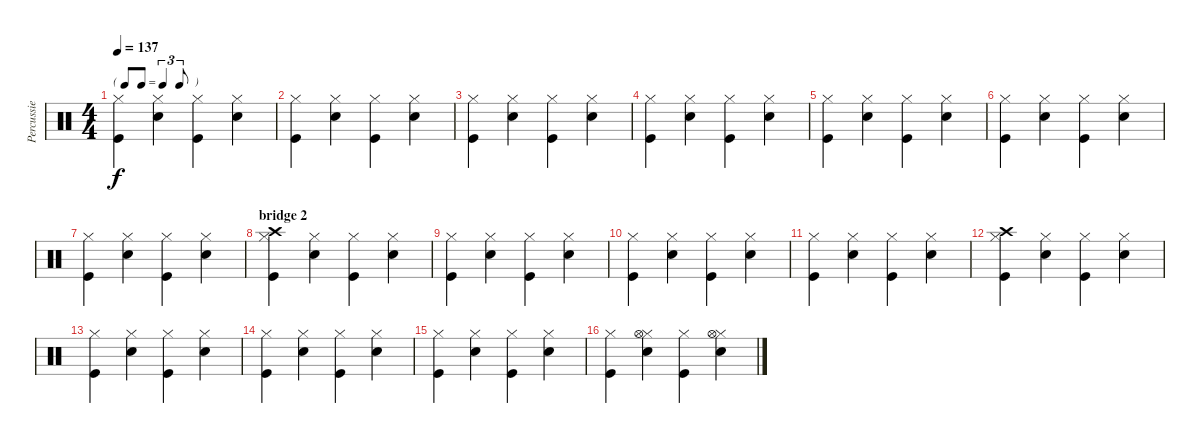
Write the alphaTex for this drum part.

\track ("Percussie" "Percussie") {instrument percussion}
\staff {score}
\articulation defaults
\ts (4 4)
\tf triplet8th
\tempo 137
\clef neutral
\ks c
("Hi-Hat (closed)" "Kick (hit)").4{dy f} ("Hi-Hat (closed)" "Snare (hit) 2").4 ("Hi-Hat (closed)" "Kick (hit)").4 ("Hi-Hat (closed)" "Snare (hit) 2").4 |
("Hi-Hat (closed)" "Kick (hit)").4 ("Hi-Hat (closed)" "Snare (hit) 2").4 ("Hi-Hat (closed)" "Kick (hit)").4 ("Hi-Hat (closed)" "Snare (hit) 2").4 |
("Hi-Hat (closed)" "Kick (hit)").4 ("Hi-Hat (closed)" "Snare (hit) 2").4 ("Hi-Hat (closed)" "Kick (hit)").4 ("Hi-Hat (closed)" "Snare (hit) 2").4 |
("Hi-Hat (closed)" "Kick (hit)").4 ("Hi-Hat (closed)" "Snare (hit) 2").4 ("Hi-Hat (closed)" "Kick (hit)").4 ("Hi-Hat (closed)" "Snare (hit) 2").4 |
("Hi-Hat (closed)" "Kick (hit)").4 ("Hi-Hat (closed)" "Snare (hit) 2").4 ("Hi-Hat (closed)" "Kick (hit)").4 ("Hi-Hat (closed)" "Snare (hit) 2").4 |
("Hi-Hat (closed)" "Kick (hit)").4 ("Hi-Hat (closed)" "Snare (hit) 2").4 ("Hi-Hat (closed)" "Kick (hit)").4 ("Hi-Hat (closed)" "Snare (hit) 2").4 |
("Hi-Hat (closed)" "Kick (hit)").4 ("Hi-Hat (closed)" "Snare (hit) 2").4 ("Hi-Hat (closed)" "Kick (hit)").4 ("Hi-Hat (closed)" "Snare (hit) 2").4 |
\section ("" "bridge 2")
("Hi-Hat (closed)" "Crash high (hit)" "Kick (hit)").4 ("Hi-Hat (closed)" "Snare (hit) 2").4 ("Hi-Hat (closed)" "Kick (hit)").4 ("Hi-Hat (closed)" "Snare (hit) 2").4 |
("Hi-Hat (closed)" "Kick (hit)").4 ("Hi-Hat (closed)" "Snare (hit) 2").4 ("Hi-Hat (closed)" "Kick (hit)").4 ("Hi-Hat (closed)" "Snare (hit) 2").4 |
("Hi-Hat (closed)" "Kick (hit)").4 ("Hi-Hat (closed)" "Snare (hit) 2").4 ("Hi-Hat (closed)" "Kick (hit)").4 ("Hi-Hat (closed)" "Snare (hit) 2").4 |
("Hi-Hat (closed)" "Kick (hit)").4 ("Hi-Hat (closed)" "Snare (hit) 2").4 ("Hi-Hat (closed)" "Kick (hit)").4 ("Hi-Hat (closed)" "Snare (hit) 2").4 |
("Hi-Hat (closed)" "Crash high (hit)" "Kick (hit)").4 ("Hi-Hat (closed)" "Snare (hit) 2").4 ("Hi-Hat (closed)" "Kick (hit)").4 ("Hi-Hat (closed)" "Snare (hit) 2").4 |
("Hi-Hat (closed)" "Kick (hit)").4 ("Hi-Hat (closed)" "Snare (hit) 2").4 ("Hi-Hat (closed)" "Kick (hit)").4 ("Hi-Hat (closed)" "Snare (hit) 2").4 |
("Hi-Hat (closed)" "Kick (hit)").4 ("Hi-Hat (closed)" "Snare (hit) 2").4 ("Hi-Hat (closed)" "Kick (hit)").4 ("Hi-Hat (closed)" "Snare (hit) 2").4 |
("Hi-Hat (closed)" "Kick (hit)").4 ("Hi-Hat (closed)" "Snare (hit) 2").4 ("Hi-Hat (closed)" "Kick (hit)").4 ("Hi-Hat (closed)" "Snare (hit) 2").4 |
("Hi-Hat (closed)" "Kick (hit)").4 ("Hi-Hat (closed)" "Hi-Hat (open)" "Snare (hit) 2").4 ("Hi-Hat (closed)" "Kick (hit)").4 ("Hi-Hat (closed)" "Hi-Hat (open)" "Snare (hit) 2").4
